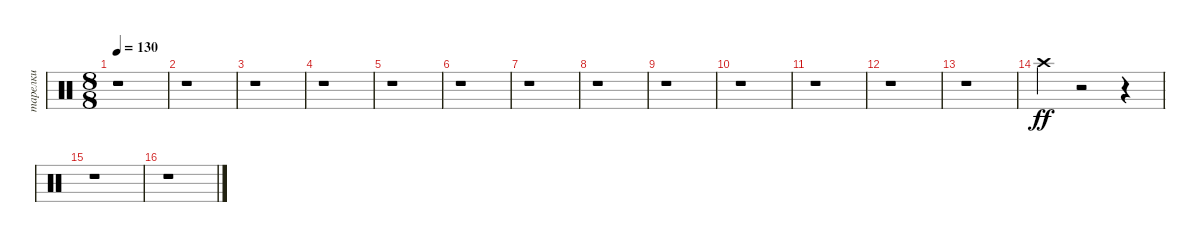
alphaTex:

\track ("тарелки" "тарелки") {instrument percussion}
\staff {score}
\articulation defaults
\ts (8 8)
\tempo 130
\clef neutral
\ks c
r.1{dy f} |
r.1 |
r.1 |
r.1 |
r.1 |
r.1 |
r.1 |
r.1 |
r.1 |
r.1 |
r.1 |
r.1 |
r.1 |
"Crash high (hit)".4{dy ff} r.2 r.4 |
r.1 |
r.1
